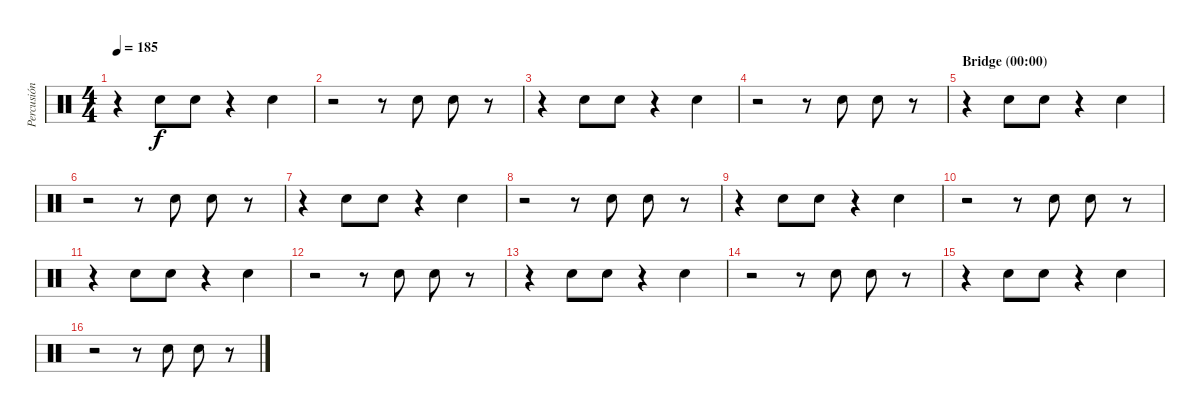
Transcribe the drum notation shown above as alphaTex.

\track ("Percusión" "Percusión") {instrument percussion}
\staff {score}
\articulation defaults
\ts (4 4)
\tempo 185
\clef neutral
\ks c
r.4{dy f} "Hand Clap (hit)".8 "Hand Clap (hit)".8 r.4 "Hand Clap (hit)".4 |
r.2 r.8 "Hand Clap (hit)".8 "Hand Clap (hit)".8 r.8 |
r.4 "Hand Clap (hit)".8 "Hand Clap (hit)".8 r.4 "Hand Clap (hit)".4 |
r.2 r.8 "Hand Clap (hit)".8 "Hand Clap (hit)".8 r.8 |
\section ("" "Bridge (00:00)")
r.4 "Hand Clap (hit)".8 "Hand Clap (hit)".8 r.4 "Hand Clap (hit)".4 |
r.2 r.8 "Hand Clap (hit)".8 "Hand Clap (hit)".8 r.8 |
r.4 "Hand Clap (hit)".8 "Hand Clap (hit)".8 r.4 "Hand Clap (hit)".4 |
r.2 r.8 "Hand Clap (hit)".8 "Hand Clap (hit)".8 r.8 |
r.4 "Hand Clap (hit)".8 "Hand Clap (hit)".8 r.4 "Hand Clap (hit)".4 |
r.2 r.8 "Hand Clap (hit)".8 "Hand Clap (hit)".8 r.8 |
r.4 "Hand Clap (hit)".8 "Hand Clap (hit)".8 r.4 "Hand Clap (hit)".4 |
r.2 r.8 "Hand Clap (hit)".8 "Hand Clap (hit)".8 r.8 |
r.4 "Hand Clap (hit)".8 "Hand Clap (hit)".8 r.4 "Hand Clap (hit)".4 |
r.2 r.8 "Hand Clap (hit)".8 "Hand Clap (hit)".8 r.8 |
r.4 "Hand Clap (hit)".8 "Hand Clap (hit)".8 r.4 "Hand Clap (hit)".4 |
r.2 r.8 "Hand Clap (hit)".8 "Hand Clap (hit)".8 r.8
